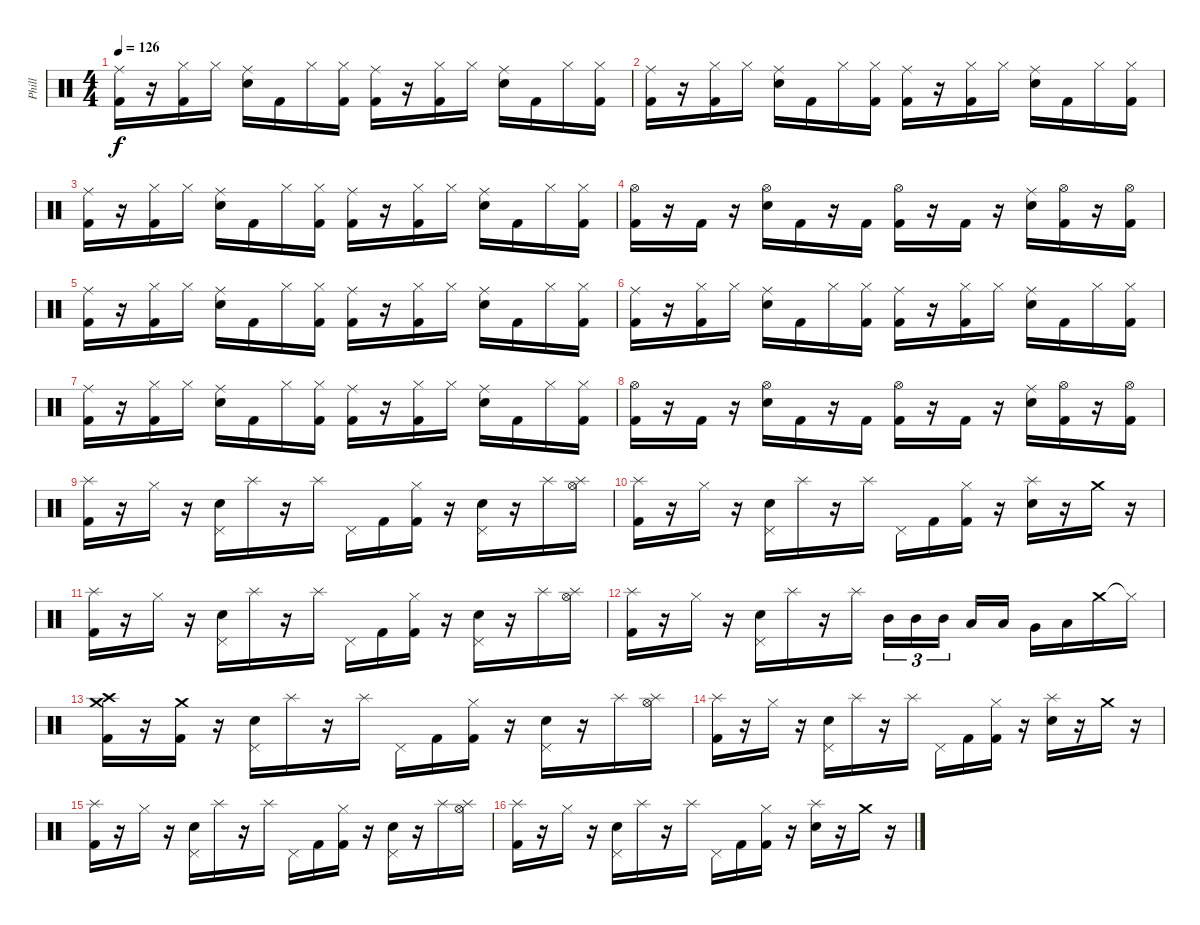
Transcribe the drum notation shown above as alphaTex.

\track ("Phill" "Phill") {instrument percussion}
\staff {score}
\articulation defaults
\ts (4 4)
\tempo 126
\clef neutral
\ks c
("Ride (middle)" "Kick (hit) 2").16{dy f} r.16 ("Hi-Hat (closed)" "Kick (hit) 2").16 "Hi-Hat (closed)".16 ("Ride (middle)" "Electric Snare (hit)").16 "Kick (hit) 2".16 "Hi-Hat (closed)".16 ("Hi-Hat (closed)" "Kick (hit) 2").16 ("Ride (middle)" "Kick (hit) 2").16 r.16 ("Hi-Hat (closed)" "Kick (hit) 2").16 "Hi-Hat (closed)".16 ("Ride (middle)" "Electric Snare (hit)").16 "Kick (hit) 2".16 "Hi-Hat (closed)".16 ("Hi-Hat (closed)" "Kick (hit) 2").16 |
("Ride (middle)" "Kick (hit) 2").16 r.16 ("Hi-Hat (closed)" "Kick (hit) 2").16 "Hi-Hat (closed)".16 ("Ride (middle)" "Electric Snare (hit)").16 "Kick (hit) 2".16 "Hi-Hat (closed)".16 ("Hi-Hat (closed)" "Kick (hit) 2").16 ("Ride (middle)" "Kick (hit) 2").16 r.16 ("Hi-Hat (closed)" "Kick (hit) 2").16 "Hi-Hat (closed)".16 ("Ride (middle)" "Electric Snare (hit)").16 "Kick (hit) 2".16 "Hi-Hat (closed)".16 ("Hi-Hat (closed)" "Kick (hit) 2").16 |
("Ride (middle)" "Kick (hit) 2").16 r.16 ("Hi-Hat (closed)" "Kick (hit) 2").16 "Hi-Hat (closed)".16 ("Ride (middle)" "Electric Snare (hit)").16 "Kick (hit) 2".16 "Hi-Hat (closed)".16 ("Hi-Hat (closed)" "Kick (hit) 2").16 ("Ride (middle)" "Kick (hit) 2").16 r.16 ("Hi-Hat (closed)" "Kick (hit) 2").16 "Hi-Hat (closed)".16 ("Ride (middle)" "Electric Snare (hit)").16 "Kick (hit) 2".16 "Hi-Hat (closed)".16 ("Hi-Hat (closed)" "Kick (hit) 2").16 |
("Hi-Hat (open)" "Kick (hit) 2").16 r.16 "Kick (hit) 2".16 r.16 ("Hi-Hat (open)" "Electric Snare (hit)").16 "Kick (hit) 2".16 r.16 "Kick (hit) 2".16 ("Hi-Hat (open)" "Kick (hit) 2").16 r.16 "Kick (hit) 2".16 r.16 ("Ride (middle)" "Electric Snare (hit)").16 ("Hi-Hat (open)" "Kick (hit) 2").16 r.16 ("Hi-Hat (open)" "Kick (hit) 2").16 |
("Ride (middle)" "Kick (hit) 2").16 r.16 ("Hi-Hat (closed)" "Kick (hit) 2").16 "Hi-Hat (closed)".16 ("Ride (middle)" "Electric Snare (hit)").16 "Kick (hit) 2".16 "Hi-Hat (closed)".16 ("Hi-Hat (closed)" "Kick (hit) 2").16 ("Ride (middle)" "Kick (hit) 2").16 r.16 ("Hi-Hat (closed)" "Kick (hit) 2").16 "Hi-Hat (closed)".16 ("Ride (middle)" "Electric Snare (hit)").16 "Kick (hit) 2".16 "Hi-Hat (closed)".16 ("Hi-Hat (closed)" "Kick (hit) 2").16 |
("Ride (middle)" "Kick (hit) 2").16 r.16 ("Hi-Hat (closed)" "Kick (hit) 2").16 "Hi-Hat (closed)".16 ("Ride (middle)" "Electric Snare (hit)").16 "Kick (hit) 2".16 "Hi-Hat (closed)".16 ("Hi-Hat (closed)" "Kick (hit) 2").16 ("Ride (middle)" "Kick (hit) 2").16 r.16 ("Hi-Hat (closed)" "Kick (hit) 2").16 "Hi-Hat (closed)".16 ("Ride (middle)" "Electric Snare (hit)").16 "Kick (hit) 2".16 "Hi-Hat (closed)".16 ("Hi-Hat (closed)" "Kick (hit) 2").16 |
("Ride (middle)" "Kick (hit) 2").16 r.16 ("Hi-Hat (closed)" "Kick (hit) 2").16 "Hi-Hat (closed)".16 ("Ride (middle)" "Electric Snare (hit)").16 "Kick (hit) 2".16 "Hi-Hat (closed)".16 ("Hi-Hat (closed)" "Kick (hit) 2").16 ("Ride (middle)" "Kick (hit) 2").16 r.16 ("Hi-Hat (closed)" "Kick (hit) 2").16 "Hi-Hat (closed)".16 ("Ride (middle)" "Electric Snare (hit)").16 "Kick (hit) 2".16 "Hi-Hat (closed)".16 ("Hi-Hat (closed)" "Kick (hit) 2").16 |
("Hi-Hat (open)" "Kick (hit) 2").16 r.16 "Kick (hit) 2".16 r.16 ("Hi-Hat (open)" "Electric Snare (hit)").16 "Kick (hit) 2".16 r.16 "Kick (hit) 2".16 ("Hi-Hat (open)" "Kick (hit) 2").16 r.16 "Kick (hit) 2".16 r.16 ("Ride (middle)" "Electric Snare (hit)").16 ("Hi-Hat (open)" "Kick (hit) 2").16 r.16 ("Hi-Hat (open)" "Kick (hit) 2").16 |
("Splash (hit)" "Kick (hit) 2").16 r.16 "Hi-Hat (closed)".16 r.16 ("Pedal Hi-Hat (hit)" "Electric Snare (hit)").16 "Splash (hit)".16 r.16 "Splash (hit)".16 "Pedal Hi-Hat (hit)".16 "Kick (hit) 2".16 ("Hi-Hat (closed)" "Kick (hit) 2").16 r.16 ("Pedal Hi-Hat (hit)" "Electric Snare (hit)").16 r.16 "Splash (hit)".16 ("Splash (hit)" "Hi-Hat (open)").16 |
("Splash (hit)" "Kick (hit) 2").16 r.16 "Hi-Hat (closed)".16 r.16 ("Pedal Hi-Hat (hit)" "Electric Snare (hit)").16 "Splash (hit)".16 r.16 "Splash (hit)".16 "Pedal Hi-Hat (hit)".16 "Kick (hit) 2".16 ("Hi-Hat (closed)" "Kick (hit) 2").16 r.16 ("Splash (hit)" "Electric Snare (hit)").16 r.16 "Crash medium (hit)".16 r.16 |
("Splash (hit)" "Kick (hit) 2").16 r.16 "Hi-Hat (closed)".16 r.16 ("Pedal Hi-Hat (hit)" "Electric Snare (hit)").16 "Splash (hit)".16 r.16 "Splash (hit)".16 "Pedal Hi-Hat (hit)".16 "Kick (hit) 2".16 ("Hi-Hat (closed)" "Kick (hit) 2").16 r.16 ("Pedal Hi-Hat (hit)" "Electric Snare (hit)").16 r.16 "Splash (hit)".16 ("Splash (hit)" "Hi-Hat (open)").16 |
("Splash (hit)" "Kick (hit) 2").16 r.16 "Hi-Hat (closed)".16 r.16 ("Pedal Hi-Hat (hit)" "Electric Snare (hit)").16 "Splash (hit)".16 r.16 "Splash (hit)".16 "Mid Tom (hit)".16{tu (3 2)} "Mid Tom (hit)".16{tu (3 2)} "Mid Tom (hit)".16{tu (3 2)} "Low Tom (hit)".16 "Low Tom (hit)".16 "Very Low Tom (hit)".16 "Low Floor Tom (hit)".16 "Crash medium (hit)".16 "Hi-Hat (closed)"{t}.16 |
("Crash medium (hit)" "Crash high (hit)" "Kick (hit) 2").16 r.16 ("Crash medium (hit)" "Kick (hit) 2").16 r.16 ("Pedal Hi-Hat (hit)" "Electric Snare (hit)").16 "Splash (hit)".16 r.16 "Splash (hit)".16 "Pedal Hi-Hat (hit)".16 "Kick (hit) 2".16 ("Hi-Hat (closed)" "Kick (hit) 2").16 r.16 ("Pedal Hi-Hat (hit)" "Electric Snare (hit)").16 r.16 "Splash (hit)".16 ("Splash (hit)" "Hi-Hat (open)").16 |
("Splash (hit)" "Kick (hit) 2").16 r.16 "Hi-Hat (closed)".16 r.16 ("Pedal Hi-Hat (hit)" "Electric Snare (hit)").16 "Splash (hit)".16 r.16 "Splash (hit)".16 "Pedal Hi-Hat (hit)".16 "Kick (hit) 2".16 ("Hi-Hat (closed)" "Kick (hit) 2").16 r.16 ("Splash (hit)" "Electric Snare (hit)").16 r.16 "Crash medium (hit)".16 r.16 |
("Splash (hit)" "Kick (hit) 2").16 r.16 "Hi-Hat (closed)".16 r.16 ("Pedal Hi-Hat (hit)" "Electric Snare (hit)").16 "Splash (hit)".16 r.16 "Splash (hit)".16 "Pedal Hi-Hat (hit)".16 "Kick (hit) 2".16 ("Hi-Hat (closed)" "Kick (hit) 2").16 r.16 ("Pedal Hi-Hat (hit)" "Electric Snare (hit)").16 r.16 "Splash (hit)".16 ("Splash (hit)" "Hi-Hat (open)").16 |
("Splash (hit)" "Kick (hit) 2").16 r.16 "Hi-Hat (closed)".16 r.16 ("Pedal Hi-Hat (hit)" "Electric Snare (hit)").16 "Splash (hit)".16 r.16 "Splash (hit)".16 "Pedal Hi-Hat (hit)".16 "Kick (hit) 2".16 ("Hi-Hat (closed)" "Kick (hit) 2").16 r.16 ("Splash (hit)" "Electric Snare (hit)").16 r.16 "Crash medium (hit)".16 r.16
